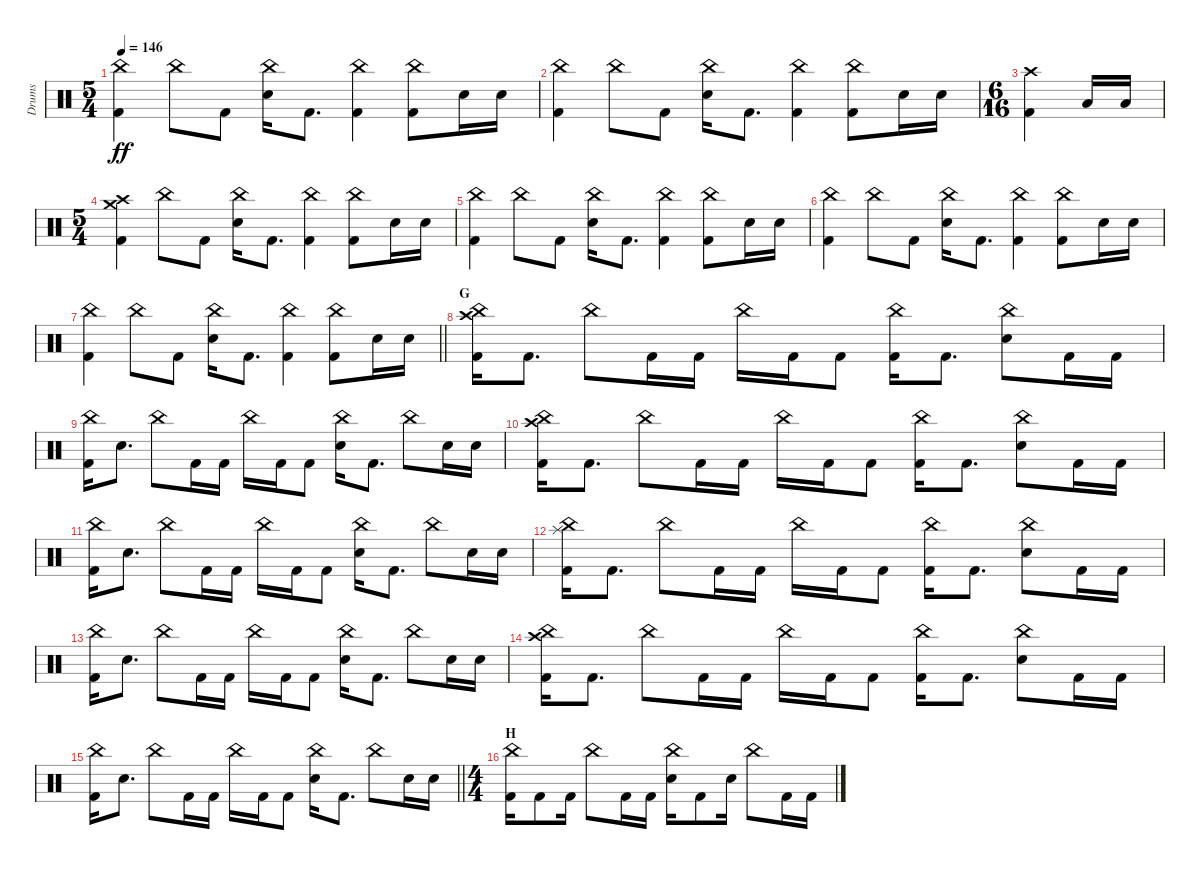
\track ("Drums" "Drums") {instrument percussion}
\staff {score}
\articulation defaults
\ts (5 4)
\tempo 146
\clef neutral
\ks c
("China (hit)" "Kick (hit) 2").4{dy ff} "China (hit)".8 "Kick (hit) 2".8 ("China (hit)" "Electric Snare (hit)").16 "Kick (hit) 2".8{d} ("China (hit)" "Kick (hit) 2").4 ("China (hit)" "Kick (hit) 2").8 "Electric Snare (hit)".16 "Electric Snare (hit)".16 |
("China (hit)" "Kick (hit) 2").4 "China (hit)".8 "Kick (hit) 2".8 ("China (hit)" "Electric Snare (hit)").16 "Kick (hit) 2".8{d} ("China (hit)" "Kick (hit) 2").4 ("China (hit)" "Kick (hit) 2").8 "Electric Snare (hit)".16 "Electric Snare (hit)".16 |
\ts (6 16)
("Crash high (hit)" "Kick (hit) 2").4 "Low Tom (hit)".16 "Low Tom (hit)".16 |
\ts (5 4)
("Crash medium (hit)" "Crash high (hit)" "Kick (hit) 2").4 "China (hit)".8 "Kick (hit) 2".8 ("China (hit)" "Electric Snare (hit)").16 "Kick (hit) 2".8{d} ("China (hit)" "Kick (hit) 2").4 ("China (hit)" "Kick (hit) 2").8 "Electric Snare (hit)".16 "Electric Snare (hit)".16 |
("China (hit)" "Kick (hit) 2").4 "China (hit)".8 "Kick (hit) 2".8 ("China (hit)" "Electric Snare (hit)").16 "Kick (hit) 2".8{d} ("China (hit)" "Kick (hit) 2").4 ("China (hit)" "Kick (hit) 2").8 "Electric Snare (hit)".16 "Electric Snare (hit)".16 |
("China (hit)" "Kick (hit) 2").4 "China (hit)".8 "Kick (hit) 2".8 ("China (hit)" "Electric Snare (hit)").16 "Kick (hit) 2".8{d} ("China (hit)" "Kick (hit) 2").4 ("China (hit)" "Kick (hit) 2").8 "Electric Snare (hit)".16 "Electric Snare (hit)".16 |
\barLineRight lightlight
("China (hit)" "Kick (hit) 2").4 "China (hit)".8 "Kick (hit) 2".8 ("China (hit)" "Electric Snare (hit)").16 "Kick (hit) 2".8{d} ("China (hit)" "Kick (hit) 2").4 ("China (hit)" "Kick (hit) 2").8 "Electric Snare (hit)".16 "Electric Snare (hit)".16 |
\section ("" "G")
("Crash high (hit)" "China (hit)" "Kick (hit) 2").16 "Kick (hit) 2".8{d} "China (hit)".8 "Kick (hit) 2".16 "Kick (hit) 2".16 "China (hit)".16 "Kick (hit) 2".16 "Kick (hit) 2".8 ("China (hit)" "Kick (hit) 2").16 "Kick (hit) 2".8{d} ("China (hit)" "Electric Snare (hit)").8 "Kick (hit) 2".16 "Kick (hit) 2".16 |
("China (hit)" "Kick (hit) 2").16 "Electric Snare (hit)".8{d} "China (hit)".8 "Kick (hit) 2".16 "Kick (hit) 2".16 "China (hit)".16 "Kick (hit) 2".16 "Kick (hit) 2".8 ("China (hit)" "Electric Snare (hit)").16 "Kick (hit) 2".8{d} "China (hit)".8 "Electric Snare (hit)".16 "Electric Snare (hit)".16 |
("Crash high (hit)" "China (hit)" "Kick (hit) 2").16 "Kick (hit) 2".8{d} "China (hit)".8 "Kick (hit) 2".16 "Kick (hit) 2".16 "China (hit)".16 "Kick (hit) 2".16 "Kick (hit) 2".8 ("China (hit)" "Kick (hit) 2").16 "Kick (hit) 2".8{d} ("China (hit)" "Electric Snare (hit)").8 "Kick (hit) 2".16 "Kick (hit) 2".16 |
("China (hit)" "Kick (hit) 2").16 "Electric Snare (hit)".8{d} "China (hit)".8 "Kick (hit) 2".16 "Kick (hit) 2".16 "China (hit)".16 "Kick (hit) 2".16 "Kick (hit) 2".8 ("China (hit)" "Electric Snare (hit)").16 "Kick (hit) 2".8{d} "China (hit)".8 "Electric Snare (hit)".16 "Electric Snare (hit)".16 |
("China (hit)" "Splash (hit)" "Kick (hit) 2").16 "Kick (hit) 2".8{d} "China (hit)".8 "Kick (hit) 2".16 "Kick (hit) 2".16 "China (hit)".16 "Kick (hit) 2".16 "Kick (hit) 2".8 ("China (hit)" "Kick (hit) 2").16 "Kick (hit) 2".8{d} ("China (hit)" "Electric Snare (hit)").8 "Kick (hit) 2".16 "Kick (hit) 2".16 |
("China (hit)" "Kick (hit) 2").16 "Electric Snare (hit)".8{d} "China (hit)".8 "Kick (hit) 2".16 "Kick (hit) 2".16 "China (hit)".16 "Kick (hit) 2".16 "Kick (hit) 2".8 ("China (hit)" "Electric Snare (hit)").16 "Kick (hit) 2".8{d} "China (hit)".8 "Electric Snare (hit)".16 "Electric Snare (hit)".16 |
("Crash high (hit)" "China (hit)" "Kick (hit) 2").16 "Kick (hit) 2".8{d} "China (hit)".8 "Kick (hit) 2".16 "Kick (hit) 2".16 "China (hit)".16 "Kick (hit) 2".16 "Kick (hit) 2".8 ("China (hit)" "Kick (hit) 2").16 "Kick (hit) 2".8{d} ("China (hit)" "Electric Snare (hit)").8 "Kick (hit) 2".16 "Kick (hit) 2".16 |
\barLineRight lightlight
("China (hit)" "Kick (hit) 2").16 "Electric Snare (hit)".8{d} "China (hit)".8 "Kick (hit) 2".16 "Kick (hit) 2".16 "China (hit)".16 "Kick (hit) 2".16 "Kick (hit) 2".8 ("China (hit)" "Electric Snare (hit)").16 "Kick (hit) 2".8{d} "China (hit)".8 "Electric Snare (hit)".16 "Electric Snare (hit)".16 |
\ts (4 4)
\section ("" "H")
("China (hit)" "Kick (hit) 2").16 "Kick (hit) 2".8 "Kick (hit) 2".16 "China (hit)".8 "Kick (hit) 2".16 "Kick (hit) 2".16 ("China (hit)" "Electric Snare (hit)").16 "Kick (hit) 2".8 "Electric Snare (hit)".16 "China (hit)".8 "Kick (hit) 2".16 "Kick (hit) 2".16
